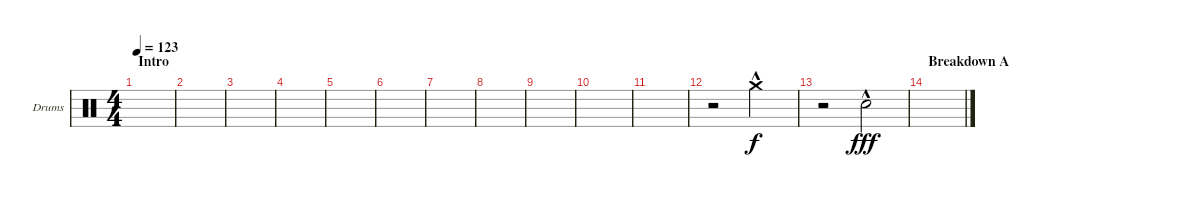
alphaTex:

\bracketExtendMode groupsimilarinstruments
\firstSystemTrackNameOrientation horizontal
\otherSystemsTrackNameOrientation horizontal
\track ("Reverse Cymbal" "Drums") {instrument percussion}
\staff {score}
\articulation defaults
\ts (4 4)
\section ("" "Intro")
\tempo 123
\clef neutral
\scale
0.472222
\ks aminor
|
\scale
0.263889 |
\scale
0.263889 |
\scale
0.333333 |
\scale
0.333333 |
\scale
0.333333 |
\scale
0.333333 |
\scale
0.333333 |
\scale
0.333333 |
\scale
0.333333 |
\scale
0.333333 |
\scale
0.333333 r.2 "Crash medium (hit)"{hac}.2 |
\scale
0.333333 r.2 "Snare (hit) 2"{hac}.2{dy fff} |
\section ("" "Breakdown A")
\scale
0.333333 |
\scale
0.333333 |
\scale
0.333333
